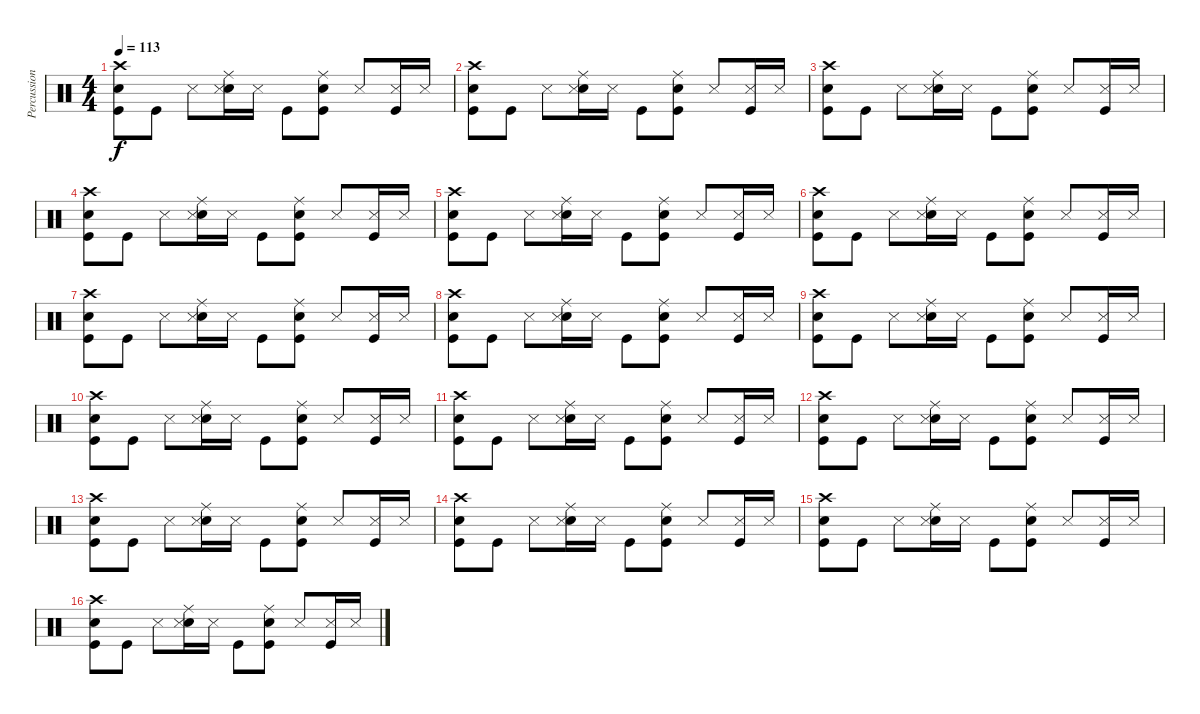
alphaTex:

\track ("Percussion" "Percussion") {instrument percussion}
\staff {score}
\articulation defaults
\ts (4 4)
\tempo 113
\clef neutral
\ks c
("Crash high (hit)" "Electric Snare (hit)" "Kick (hit)").8{dy f} "Kick (hit)".8 "Snare (side stick) 3".8 ("Ride (middle)" "Electric Snare (hit)" "Snare (side stick) 3").16 "Snare (side stick) 3".16 "Kick (hit)".8 ("Ride (middle)" "Electric Snare (hit)" "Kick (hit)").8 "Snare (side stick) 3".8 ("Snare (side stick) 3" "Kick (hit)").16 "Snare (side stick) 3".16 |
("Crash high (hit)" "Electric Snare (hit)" "Kick (hit)").8 "Kick (hit)".8 "Snare (side stick) 3".8 ("Ride (middle)" "Electric Snare (hit)" "Snare (side stick) 3").16 "Snare (side stick) 3".16 "Kick (hit)".8 ("Ride (middle)" "Electric Snare (hit)" "Kick (hit)").8 "Snare (side stick) 3".8 ("Snare (side stick) 3" "Kick (hit)").16 "Snare (side stick) 3".16 |
("Crash high (hit)" "Electric Snare (hit)" "Kick (hit)").8 "Kick (hit)".8 "Snare (side stick) 3".8 ("Ride (middle)" "Electric Snare (hit)" "Snare (side stick) 3").16 "Snare (side stick) 3".16 "Kick (hit)".8 ("Ride (middle)" "Electric Snare (hit)" "Kick (hit)").8 "Snare (side stick) 3".8 ("Snare (side stick) 3" "Kick (hit)").16 "Snare (side stick) 3".16 |
("Crash high (hit)" "Electric Snare (hit)" "Kick (hit)").8 "Kick (hit)".8 "Snare (side stick) 3".8 ("Ride (middle)" "Electric Snare (hit)" "Snare (side stick) 3").16 "Snare (side stick) 3".16 "Kick (hit)".8 ("Ride (middle)" "Electric Snare (hit)" "Kick (hit)").8 "Snare (side stick) 3".8 ("Snare (side stick) 3" "Kick (hit)").16 "Snare (side stick) 3".16 |
("Crash high (hit)" "Electric Snare (hit)" "Kick (hit)").8 "Kick (hit)".8 "Snare (side stick) 3".8 ("Ride (middle)" "Electric Snare (hit)" "Snare (side stick) 3").16 "Snare (side stick) 3".16 "Kick (hit)".8 ("Ride (middle)" "Electric Snare (hit)" "Kick (hit)").8 "Snare (side stick) 3".8 ("Snare (side stick) 3" "Kick (hit)").16 "Snare (side stick) 3".16 |
("Crash high (hit)" "Electric Snare (hit)" "Kick (hit)").8 "Kick (hit)".8 "Snare (side stick) 3".8 ("Ride (middle)" "Electric Snare (hit)" "Snare (side stick) 3").16 "Snare (side stick) 3".16 "Kick (hit)".8 ("Ride (middle)" "Electric Snare (hit)" "Kick (hit)").8 "Snare (side stick) 3".8 ("Snare (side stick) 3" "Kick (hit)").16 "Snare (side stick) 3".16 |
("Crash high (hit)" "Electric Snare (hit)" "Kick (hit)").8 "Kick (hit)".8 "Snare (side stick) 3".8 ("Ride (middle)" "Electric Snare (hit)" "Snare (side stick) 3").16 "Snare (side stick) 3".16 "Kick (hit)".8 ("Ride (middle)" "Electric Snare (hit)" "Kick (hit)").8 "Snare (side stick) 3".8 ("Snare (side stick) 3" "Kick (hit)").16 "Snare (side stick) 3".16 |
("Crash high (hit)" "Electric Snare (hit)" "Kick (hit)").8 "Kick (hit)".8 "Snare (side stick) 3".8 ("Ride (middle)" "Electric Snare (hit)" "Snare (side stick) 3").16 "Snare (side stick) 3".16 "Kick (hit)".8 ("Ride (middle)" "Electric Snare (hit)" "Kick (hit)").8 "Snare (side stick) 3".8 ("Snare (side stick) 3" "Kick (hit)").16 "Snare (side stick) 3".16 |
("Crash high (hit)" "Electric Snare (hit)" "Kick (hit)").8 "Kick (hit)".8 "Snare (side stick) 3".8 ("Ride (middle)" "Electric Snare (hit)" "Snare (side stick) 3").16 "Snare (side stick) 3".16 "Kick (hit)".8 ("Ride (middle)" "Electric Snare (hit)" "Kick (hit)").8 "Snare (side stick) 3".8 ("Snare (side stick) 3" "Kick (hit)").16 "Snare (side stick) 3".16 |
("Crash high (hit)" "Electric Snare (hit)" "Kick (hit)").8 "Kick (hit)".8 "Snare (side stick) 3".8 ("Ride (middle)" "Electric Snare (hit)" "Snare (side stick) 3").16 "Snare (side stick) 3".16 "Kick (hit)".8 ("Ride (middle)" "Electric Snare (hit)" "Kick (hit)").8 "Snare (side stick) 3".8 ("Snare (side stick) 3" "Kick (hit)").16 "Snare (side stick) 3".16 |
("Crash high (hit)" "Electric Snare (hit)" "Kick (hit)").8 "Kick (hit)".8 "Snare (side stick) 3".8 ("Ride (middle)" "Electric Snare (hit)" "Snare (side stick) 3").16 "Snare (side stick) 3".16 "Kick (hit)".8 ("Ride (middle)" "Electric Snare (hit)" "Kick (hit)").8 "Snare (side stick) 3".8 ("Snare (side stick) 3" "Kick (hit)").16 "Snare (side stick) 3".16 |
("Crash high (hit)" "Electric Snare (hit)" "Kick (hit)").8 "Kick (hit)".8 "Snare (side stick) 3".8 ("Ride (middle)" "Electric Snare (hit)" "Snare (side stick) 3").16 "Snare (side stick) 3".16 "Kick (hit)".8 ("Ride (middle)" "Electric Snare (hit)" "Kick (hit)").8 "Snare (side stick) 3".8 ("Snare (side stick) 3" "Kick (hit)").16 "Snare (side stick) 3".16 |
("Crash high (hit)" "Electric Snare (hit)" "Kick (hit)").8 "Kick (hit)".8 "Snare (side stick) 3".8 ("Ride (middle)" "Electric Snare (hit)" "Snare (side stick) 3").16 "Snare (side stick) 3".16 "Kick (hit)".8 ("Ride (middle)" "Electric Snare (hit)" "Kick (hit)").8 "Snare (side stick) 3".8 ("Snare (side stick) 3" "Kick (hit)").16 "Snare (side stick) 3".16 |
("Crash high (hit)" "Electric Snare (hit)" "Kick (hit)").8 "Kick (hit)".8 "Snare (side stick) 3".8 ("Ride (middle)" "Electric Snare (hit)" "Snare (side stick) 3").16 "Snare (side stick) 3".16 "Kick (hit)".8 ("Ride (middle)" "Electric Snare (hit)" "Kick (hit)").8 "Snare (side stick) 3".8 ("Snare (side stick) 3" "Kick (hit)").16 "Snare (side stick) 3".16 |
("Crash high (hit)" "Electric Snare (hit)" "Kick (hit)").8 "Kick (hit)".8 "Snare (side stick) 3".8 ("Ride (middle)" "Electric Snare (hit)" "Snare (side stick) 3").16 "Snare (side stick) 3".16 "Kick (hit)".8 ("Ride (middle)" "Electric Snare (hit)" "Kick (hit)").8 "Snare (side stick) 3".8 ("Snare (side stick) 3" "Kick (hit)").16 "Snare (side stick) 3".16 |
("Crash high (hit)" "Electric Snare (hit)" "Kick (hit)").8 "Kick (hit)".8 "Snare (side stick) 3".8 ("Ride (middle)" "Electric Snare (hit)" "Snare (side stick) 3").16 "Snare (side stick) 3".16 "Kick (hit)".8 ("Ride (middle)" "Electric Snare (hit)" "Kick (hit)").8 "Snare (side stick) 3".8 ("Snare (side stick) 3" "Kick (hit)").16 "Snare (side stick) 3".16
